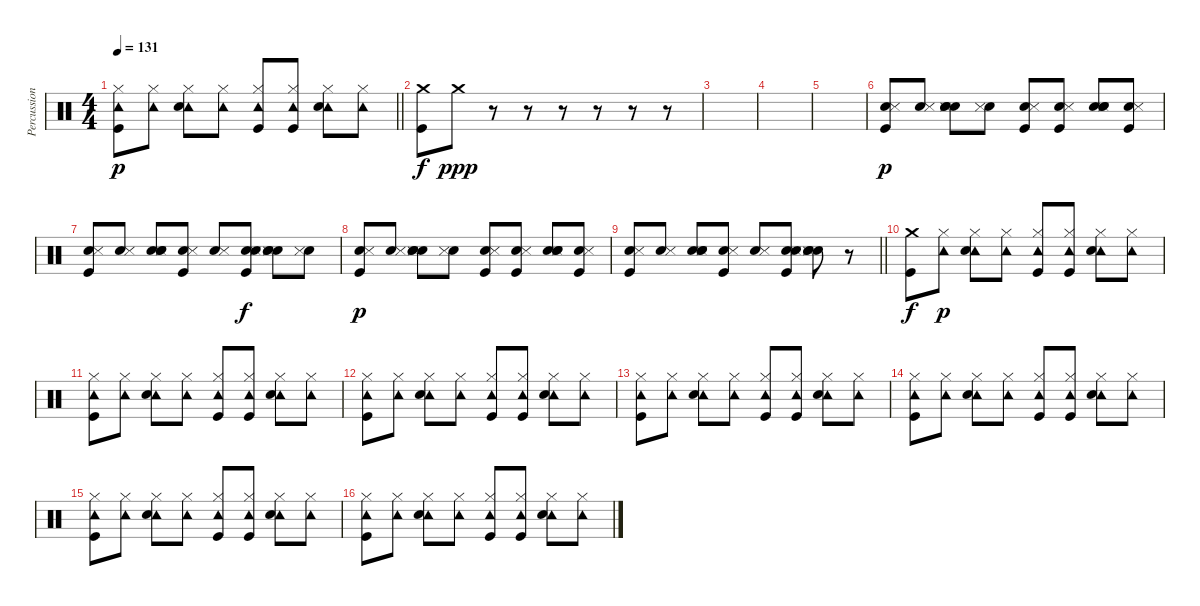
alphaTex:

\track ("Percussion" "Percussion") {instrument percussion}
\staff {score}
\articulation defaults
\ts (4 4)
\tempo 131
\clef neutral
\barLineRight lightlight
\ks c
("Tambourine (hit)" "Hi-Hat (closed)" "Kick (hit)").8{dy p} ("Tambourine (hit)" "Hi-Hat (closed)").8 ("Tambourine (hit)" "Hi-Hat (closed)" "Snare (hit) 2").8 ("Tambourine (hit)" "Hi-Hat (closed)").8 ("Tambourine (hit)" "Hi-Hat (closed)" "Kick (hit)").8 ("Tambourine (hit)" "Hi-Hat (closed)" "Kick (hit)").8 ("Tambourine (hit)" "Hi-Hat (closed)" "Snare (hit) 2").8 ("Tambourine (hit)" "Hi-Hat (closed)").8 |
("Crash medium (hit)" "Kick (hit)").8{dy f} "Crash medium (hit)".8{dy ppp} r.8 r.8 r.8 r.8 r.8 r.8 |
|
|
|
("Hand Clap (hit)" "Snare (side stick) 3" "Kick (hit)").8{dy p} ("Hand Clap (hit)" "Snare (side stick) 3").8 ("Hand Clap (hit)" "Snare (side stick) 3" "Snare (hit) 2" "Snare (hit) 2").8 ("Hand Clap (hit)" "Snare (side stick) 3").8 ("Hand Clap (hit)" "Snare (side stick) 3" "Kick (hit)").8 ("Hand Clap (hit)" "Snare (side stick) 3" "Kick (hit)").8 ("Hand Clap (hit)" "Snare (side stick) 3" "Snare (hit) 2" "Snare (hit) 2").8 ("Hand Clap (hit)" "Snare (side stick) 3" "Kick (hit)").8 |
("Hand Clap (hit)" "Snare (side stick) 3" "Kick (hit)").8 ("Hand Clap (hit)" "Snare (side stick) 3").8 ("Hand Clap (hit)" "Snare (side stick) 3" "Snare (hit) 2" "Snare (hit) 2").8 ("Hand Clap (hit)" "Snare (side stick) 3" "Kick (hit)").8 ("Hand Clap (hit)" "Snare (side stick) 3").8 ("Hand Clap (hit)" "Snare (side stick) 3" "Snare (hit) 2" "Kick (hit)").8{dy f} ("Hand Clap (hit)" "Snare (side stick) 3" "Snare (hit) 2" "Snare (hit) 2").8 ("Hand Clap (hit)" "Snare (side stick) 3").8 |
("Hand Clap (hit)" "Snare (side stick) 3" "Kick (hit)").8{dy p} ("Hand Clap (hit)" "Snare (side stick) 3").8 ("Hand Clap (hit)" "Snare (side stick) 3" "Snare (hit) 2" "Snare (hit) 2").8 ("Hand Clap (hit)" "Snare (side stick) 3").8 ("Hand Clap (hit)" "Snare (side stick) 3" "Kick (hit)").8 ("Hand Clap (hit)" "Snare (side stick) 3" "Kick (hit)").8 ("Hand Clap (hit)" "Snare (side stick) 3" "Snare (hit) 2" "Snare (hit) 2").8 ("Hand Clap (hit)" "Snare (side stick) 3" "Kick (hit)").8 |
\barLineRight lightlight
("Hand Clap (hit)" "Snare (side stick) 3" "Kick (hit)").8 ("Hand Clap (hit)" "Snare (side stick) 3").8 ("Hand Clap (hit)" "Snare (side stick) 3" "Snare (hit) 2" "Snare (hit) 2").8 ("Hand Clap (hit)" "Snare (side stick) 3" "Kick (hit)").8 ("Hand Clap (hit)" "Snare (side stick) 3").8 ("Hand Clap (hit)" "Snare (side stick) 3" "Snare (hit) 2" "Kick (hit)").8 ("Hand Clap (hit)" "Snare (side stick) 3" "Snare (hit) 2" "Snare (hit) 2").8 r.8 |
("Crash medium (hit)" "Kick (hit)").8{dy f} ("Tambourine (hit)" "Hi-Hat (closed)").8{dy p} ("Tambourine (hit)" "Hi-Hat (closed)" "Snare (hit) 2").8 ("Tambourine (hit)" "Hi-Hat (closed)").8 ("Tambourine (hit)" "Hi-Hat (closed)" "Kick (hit)").8 ("Tambourine (hit)" "Hi-Hat (closed)" "Kick (hit)").8 ("Tambourine (hit)" "Hi-Hat (closed)" "Snare (hit) 2").8 ("Tambourine (hit)" "Hi-Hat (closed)").8 |
("Tambourine (hit)" "Hi-Hat (closed)" "Kick (hit)").8 ("Tambourine (hit)" "Hi-Hat (closed)").8 ("Tambourine (hit)" "Hi-Hat (closed)" "Snare (hit) 2").8 ("Tambourine (hit)" "Hi-Hat (closed)").8 ("Tambourine (hit)" "Hi-Hat (closed)" "Kick (hit)").8 ("Tambourine (hit)" "Hi-Hat (closed)" "Kick (hit)").8 ("Tambourine (hit)" "Hi-Hat (closed)" "Snare (hit) 2").8 ("Tambourine (hit)" "Hi-Hat (closed)").8 |
("Tambourine (hit)" "Hi-Hat (closed)" "Kick (hit)").8 ("Tambourine (hit)" "Hi-Hat (closed)").8 ("Tambourine (hit)" "Hi-Hat (closed)" "Snare (hit) 2").8 ("Tambourine (hit)" "Hi-Hat (closed)").8 ("Tambourine (hit)" "Hi-Hat (closed)" "Kick (hit)").8 ("Tambourine (hit)" "Hi-Hat (closed)" "Kick (hit)").8 ("Tambourine (hit)" "Hi-Hat (closed)" "Snare (hit) 2").8 ("Tambourine (hit)" "Hi-Hat (closed)").8 |
("Tambourine (hit)" "Hi-Hat (closed)" "Kick (hit)").8 ("Tambourine (hit)" "Hi-Hat (closed)").8 ("Tambourine (hit)" "Hi-Hat (closed)" "Snare (hit) 2").8 ("Tambourine (hit)" "Hi-Hat (closed)").8 ("Tambourine (hit)" "Hi-Hat (closed)" "Kick (hit)").8 ("Tambourine (hit)" "Hi-Hat (closed)" "Kick (hit)").8 ("Tambourine (hit)" "Hi-Hat (closed)" "Snare (hit) 2").8 ("Tambourine (hit)" "Hi-Hat (closed)").8 |
("Tambourine (hit)" "Hi-Hat (closed)" "Kick (hit)").8 ("Tambourine (hit)" "Hi-Hat (closed)").8 ("Tambourine (hit)" "Hi-Hat (closed)" "Snare (hit) 2").8 ("Tambourine (hit)" "Hi-Hat (closed)").8 ("Tambourine (hit)" "Hi-Hat (closed)" "Kick (hit)").8 ("Tambourine (hit)" "Hi-Hat (closed)" "Kick (hit)").8 ("Tambourine (hit)" "Hi-Hat (closed)" "Snare (hit) 2").8 ("Tambourine (hit)" "Hi-Hat (closed)").8 |
("Tambourine (hit)" "Hi-Hat (closed)" "Kick (hit)").8 ("Tambourine (hit)" "Hi-Hat (closed)").8 ("Tambourine (hit)" "Hi-Hat (closed)" "Snare (hit) 2").8 ("Tambourine (hit)" "Hi-Hat (closed)").8 ("Tambourine (hit)" "Hi-Hat (closed)" "Kick (hit)").8 ("Tambourine (hit)" "Hi-Hat (closed)" "Kick (hit)").8 ("Tambourine (hit)" "Hi-Hat (closed)" "Snare (hit) 2").8 ("Tambourine (hit)" "Hi-Hat (closed)").8 |
("Tambourine (hit)" "Hi-Hat (closed)" "Kick (hit)").8 ("Tambourine (hit)" "Hi-Hat (closed)").8 ("Tambourine (hit)" "Hi-Hat (closed)" "Snare (hit) 2").8 ("Tambourine (hit)" "Hi-Hat (closed)").8 ("Tambourine (hit)" "Hi-Hat (closed)" "Kick (hit)").8 ("Tambourine (hit)" "Hi-Hat (closed)" "Kick (hit)").8 ("Tambourine (hit)" "Hi-Hat (closed)" "Snare (hit) 2").8 ("Tambourine (hit)" "Hi-Hat (closed)").8
